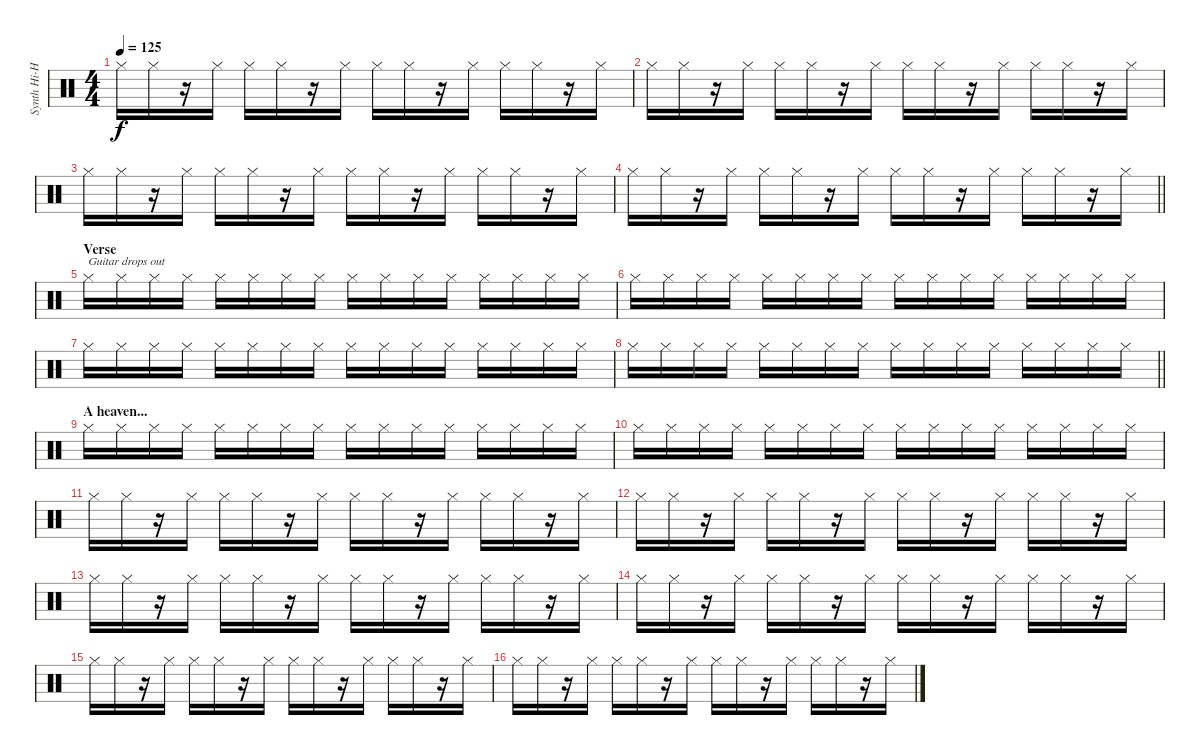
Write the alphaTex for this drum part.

\track ("Synth Hi-Hat (Gillian Gilbert)" "Synth Hi-H") {instrument percussion}
\staff {score}
\articulation defaults
\ts (4 4)
\tempo 125
\clef neutral
\ks c "Hi-Hat (closed)".16{dy f} "Hi-Hat (closed)".16
r.16 "Hi-Hat (closed)".16 "Hi-Hat (closed)".16 "Hi-Hat (closed)".16 r.16 "Hi-Hat (closed)".16 "Hi-Hat (closed)".16 "Hi-Hat (closed)".16 r.16 "Hi-Hat (closed)".16 "Hi-Hat (closed)".16 "Hi-Hat (closed)".16 r.16 "Hi-Hat (closed)".16 |
"Hi-Hat (closed)".16 "Hi-Hat (closed)".16 r.16 "Hi-Hat (closed)".16 "Hi-Hat (closed)".16 "Hi-Hat (closed)".16 r.16 "Hi-Hat (closed)".16 "Hi-Hat (closed)".16 "Hi-Hat (closed)".16 r.16 "Hi-Hat (closed)".16 "Hi-Hat (closed)".16 "Hi-Hat (closed)".16 r.16 "Hi-Hat (closed)".16 |
"Hi-Hat (closed)".16 "Hi-Hat (closed)".16 r.16 "Hi-Hat (closed)".16 "Hi-Hat (closed)".16 "Hi-Hat (closed)".16 r.16 "Hi-Hat (closed)".16 "Hi-Hat (closed)".16 "Hi-Hat (closed)".16 r.16 "Hi-Hat (closed)".16 "Hi-Hat (closed)".16 "Hi-Hat (closed)".16 r.16 "Hi-Hat (closed)".16 |
\barLineRight lightlight "Hi-Hat (closed)".16 "Hi-Hat (closed)".16
r.16 "Hi-Hat (closed)".16 "Hi-Hat (closed)".16 "Hi-Hat (closed)".16 r.16 "Hi-Hat (closed)".16 "Hi-Hat (closed)".16 "Hi-Hat (closed)".16 r.16 "Hi-Hat (closed)".16 "Hi-Hat (closed)".16 "Hi-Hat (closed)".16 r.16 "Hi-Hat (closed)".16 |
\section ("" "Verse")
"Hi-Hat (closed)".16{txt "Guitar drops out"} "Hi-Hat (closed)".16 "Hi-Hat (closed)".16 "Hi-Hat (closed)".16 "Hi-Hat (closed)".16 "Hi-Hat (closed)".16 "Hi-Hat (closed)".16 "Hi-Hat (closed)".16 "Hi-Hat (closed)".16 "Hi-Hat (closed)".16 "Hi-Hat (closed)".16 "Hi-Hat (closed)".16 "Hi-Hat (closed)".16 "Hi-Hat (closed)".16 "Hi-Hat (closed)".16 "Hi-Hat (closed)".16 |
"Hi-Hat (closed)".16 "Hi-Hat (closed)".16 "Hi-Hat (closed)".16 "Hi-Hat (closed)".16 "Hi-Hat (closed)".16 "Hi-Hat (closed)".16 "Hi-Hat (closed)".16 "Hi-Hat (closed)".16 "Hi-Hat (closed)".16 "Hi-Hat (closed)".16 "Hi-Hat (closed)".16 "Hi-Hat (closed)".16 "Hi-Hat (closed)".16 "Hi-Hat (closed)".16 "Hi-Hat (closed)".16 "Hi-Hat (closed)".16 |
"Hi-Hat (closed)".16 "Hi-Hat (closed)".16 "Hi-Hat (closed)".16 "Hi-Hat (closed)".16 "Hi-Hat (closed)".16 "Hi-Hat (closed)".16 "Hi-Hat (closed)".16 "Hi-Hat (closed)".16 "Hi-Hat (closed)".16 "Hi-Hat (closed)".16 "Hi-Hat (closed)".16 "Hi-Hat (closed)".16 "Hi-Hat (closed)".16 "Hi-Hat (closed)".16 "Hi-Hat (closed)".16 "Hi-Hat (closed)".16 |
\barLineRight lightlight "Hi-Hat (closed)".16 "Hi-Hat (closed)".16 "Hi-Hat (closed)".16 "Hi-Hat (closed)".16 "Hi-Hat (closed)".16 "Hi-Hat (closed)".16 "Hi-Hat (closed)".16 "Hi-Hat (closed)".16 "Hi-Hat (closed)".16 "Hi-Hat (closed)".16 "Hi-Hat (closed)".16 "Hi-Hat (closed)".16 "Hi-Hat (closed)".16 "Hi-Hat (closed)".16 "Hi-Hat (closed)".16 "Hi-Hat (closed)".16
|
\section ("" "A heaven...")
"Hi-Hat (closed)".16 "Hi-Hat (closed)".16 "Hi-Hat (closed)".16 "Hi-Hat (closed)".16 "Hi-Hat (closed)".16 "Hi-Hat (closed)".16 "Hi-Hat (closed)".16 "Hi-Hat (closed)".16 "Hi-Hat (closed)".16 "Hi-Hat (closed)".16 "Hi-Hat (closed)".16 "Hi-Hat (closed)".16 "Hi-Hat (closed)".16 "Hi-Hat (closed)".16 "Hi-Hat (closed)".16 "Hi-Hat (closed)".16 |
"Hi-Hat (closed)".16 "Hi-Hat (closed)".16 "Hi-Hat (closed)".16 "Hi-Hat (closed)".16 "Hi-Hat (closed)".16 "Hi-Hat (closed)".16 "Hi-Hat (closed)".16 "Hi-Hat (closed)".16 "Hi-Hat (closed)".16 "Hi-Hat (closed)".16 "Hi-Hat (closed)".16 "Hi-Hat (closed)".16 "Hi-Hat (closed)".16 "Hi-Hat (closed)".16 "Hi-Hat (closed)".16 "Hi-Hat (closed)".16 |
"Hi-Hat (closed)".16 "Hi-Hat (closed)".16 r.16 "Hi-Hat (closed)".16 "Hi-Hat (closed)".16 "Hi-Hat (closed)".16 r.16 "Hi-Hat (closed)".16 "Hi-Hat (closed)".16 "Hi-Hat (closed)".16 r.16 "Hi-Hat (closed)".16 "Hi-Hat (closed)".16 "Hi-Hat (closed)".16 r.16 "Hi-Hat (closed)".16 |
"Hi-Hat (closed)".16 "Hi-Hat (closed)".16 r.16 "Hi-Hat (closed)".16 "Hi-Hat (closed)".16 "Hi-Hat (closed)".16 r.16 "Hi-Hat (closed)".16 "Hi-Hat (closed)".16 "Hi-Hat (closed)".16 r.16 "Hi-Hat (closed)".16 "Hi-Hat (closed)".16 "Hi-Hat (closed)".16 r.16 "Hi-Hat (closed)".16 |
"Hi-Hat (closed)".16 "Hi-Hat (closed)".16 r.16 "Hi-Hat (closed)".16 "Hi-Hat (closed)".16 "Hi-Hat (closed)".16 r.16 "Hi-Hat (closed)".16 "Hi-Hat (closed)".16 "Hi-Hat (closed)".16 r.16 "Hi-Hat (closed)".16 "Hi-Hat (closed)".16 "Hi-Hat (closed)".16 r.16 "Hi-Hat (closed)".16 |
"Hi-Hat (closed)".16 "Hi-Hat (closed)".16 r.16 "Hi-Hat (closed)".16 "Hi-Hat (closed)".16 "Hi-Hat (closed)".16 r.16 "Hi-Hat (closed)".16 "Hi-Hat (closed)".16 "Hi-Hat (closed)".16 r.16 "Hi-Hat (closed)".16 "Hi-Hat (closed)".16 "Hi-Hat (closed)".16 r.16 "Hi-Hat (closed)".16 |
"Hi-Hat (closed)".16 "Hi-Hat (closed)".16 r.16 "Hi-Hat (closed)".16 "Hi-Hat (closed)".16 "Hi-Hat (closed)".16 r.16 "Hi-Hat (closed)".16 "Hi-Hat (closed)".16 "Hi-Hat (closed)".16 r.16 "Hi-Hat (closed)".16 "Hi-Hat (closed)".16 "Hi-Hat (closed)".16 r.16 "Hi-Hat (closed)".16 |
"Hi-Hat (closed)".16 "Hi-Hat (closed)".16 r.16 "Hi-Hat (closed)".16 "Hi-Hat (closed)".16 "Hi-Hat (closed)".16 r.16 "Hi-Hat (closed)".16 "Hi-Hat (closed)".16 "Hi-Hat (closed)".16 r.16 "Hi-Hat (closed)".16 "Hi-Hat (closed)".16 "Hi-Hat (closed)".16 r.16 "Hi-Hat (closed)".16
